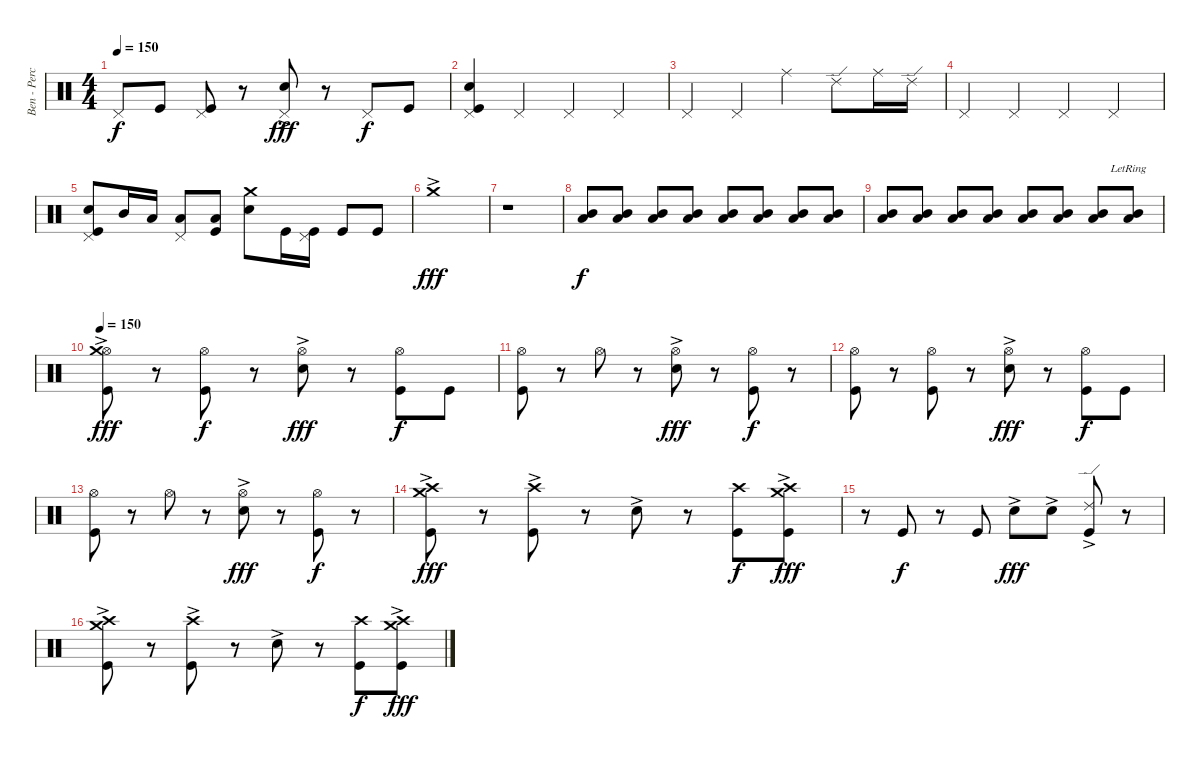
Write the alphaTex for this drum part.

\track ("Ben - Perception Twin - Drums" "Ben - Perc") {instrument percussion}
\staff {score}
\articulation defaults
\ts (4 4)
\tempo 150
\clef neutral
\ks c "Pedal Hi-Hat (hit)".8{dy f} "Kick (hit)".8
("Pedal Hi-Hat (hit)" "Kick (hit)").8 r.8 ("Pedal Hi-Hat (hit)" "Electric Snare (hit)"{ac}).8{dy fff} r.8 "Pedal Hi-Hat (hit)".8{dy f} "Kick (hit)".8 |
("Pedal Hi-Hat (hit)" "Electric Snare (hit)" "Kick (hit)").4 "Pedal Hi-Hat (hit)".4 "Pedal Hi-Hat (hit)".4 "Pedal Hi-Hat (hit)".4 |
"Pedal Hi-Hat (hit)".4 "Pedal Hi-Hat (hit)".4 "Ride (middle)".4 "Ride (edge) 2".8 "Ride (middle)".16 "Ride (edge) 2".16 |
"Pedal Hi-Hat (hit)".4 "Pedal Hi-Hat (hit)".4 "Pedal Hi-Hat (hit)".4 "Pedal Hi-Hat (hit)".4 |
("Pedal Hi-Hat (hit)" "Electric Snare (hit)" "Kick (hit)").8 "Mid Tom (hit)".16 "Low Tom (hit)".16 ("Pedal Hi-Hat (hit)" "Low Floor Tom (hit)").8 ("Low Floor Tom (hit)" "Kick (hit)").8 ("Crash medium (hit)" "Electric Snare (hit)").8 "Kick (hit)".16 ("Pedal Hi-Hat (hit)" "Kick (hit)").16 "Kick (hit)".8 "Kick (hit)".8 |
"Crash medium (hit)"{ac}.1{dy fff} |
r.1 |
("Mid Tom (hit)" "Low Tom (hit)").8{dy f volume 6} ("Mid Tom (hit)" "Low Tom (hit)").8 ("Mid Tom (hit)" "Low Tom (hit)").8{volume 7} ("Mid Tom (hit)" "Low Tom (hit)").8 ("Mid Tom (hit)" "Low Tom (hit)").8{volume 8} ("Mid Tom (hit)" "Low Tom (hit)").8 ("Mid Tom (hit)" "Low Tom (hit)").8{volume 9} ("Mid Tom (hit)" "Low Tom (hit)").8 |
("Mid Tom (hit)" "Low Tom (hit)").8{volume 10} ("Mid Tom (hit)" "Low Tom (hit)").8 ("Mid Tom (hit)" "Low Tom (hit)").8{volume 11} ("Mid Tom (hit)" "Low Tom (hit)").8 ("Mid Tom (hit)" "Low Tom (hit)").8{volume 13} ("Mid Tom (hit)" "Low Tom (hit)").8 ("Mid Tom (hit)" "Low Tom (hit)").8{volume 16} ("Mid Tom (hit)"{lr} "Low Tom (hit)"{lr}).8 |
\tempo 150
("Hi-Hat (open)" "Crash medium (hit)"{ac} "Kick (hit)").8{dy fff} r.8 ("Hi-Hat (open)" "Kick (hit)").8{dy f} r.8 ("Hi-Hat (open)" "Electric Snare (hit)"{ac}).8{dy fff} r.8 ("Hi-Hat (open)" "Kick (hit)").8{dy f} "Kick (hit)".8 |
("Hi-Hat (open)" "Kick (hit)").8 r.8 "Hi-Hat (open)".8 r.8 ("Hi-Hat (open)" "Electric Snare (hit)"{ac}).8{dy fff} r.8 ("Hi-Hat (open)" "Kick (hit)").8{dy f} r.8 |
("Hi-Hat (open)" "Kick (hit)").8 r.8 ("Hi-Hat (open)" "Kick (hit)").8 r.8 ("Hi-Hat (open)" "Electric Snare (hit)"{ac}).8{dy fff} r.8 ("Hi-Hat (open)" "Kick (hit)").8{dy f} "Kick (hit)".8 |
("Hi-Hat (open)" "Kick (hit)").8 r.8 "Hi-Hat (open)".8 r.8 ("Hi-Hat (open)" "Electric Snare (hit)"{ac}).8{dy fff} r.8 ("Hi-Hat (open)" "Kick (hit)").8{dy f} r.8 |
("Crash medium (hit)"{ac} "Crash high (hit)"{ac} "Kick (hit)").8{dy fff} r.8 ("Crash high (hit)"{ac} "Kick (hit)").8 r.8 "Electric Snare (hit)"{ac}.8 r.8 ("Crash high (hit)" "Kick (hit)").8{dy f} ("Crash medium (hit)"{ac} "Crash high (hit)"{ac} "Kick (hit)").8{dy fff} |
r.8 "Kick (hit)".8{dy f} r.8 "Kick (hit)".8 "Electric Snare (hit)"{ac}.8{dy fff} "Electric Snare (hit)"{ac}.8 ("Ride (edge) 2"{ac} "Kick (hit)").8 r.8 |
("Crash medium (hit)"{ac} "Crash high (hit)"{ac} "Kick (hit)").8 r.8 ("Crash high (hit)"{ac} "Kick (hit)").8 r.8 "Electric Snare (hit)"{ac}.8 r.8 ("Crash high (hit)" "Kick (hit)").8{dy f} ("Crash medium (hit)"{ac} "Crash high (hit)"{ac} "Kick (hit)").8{dy fff}
